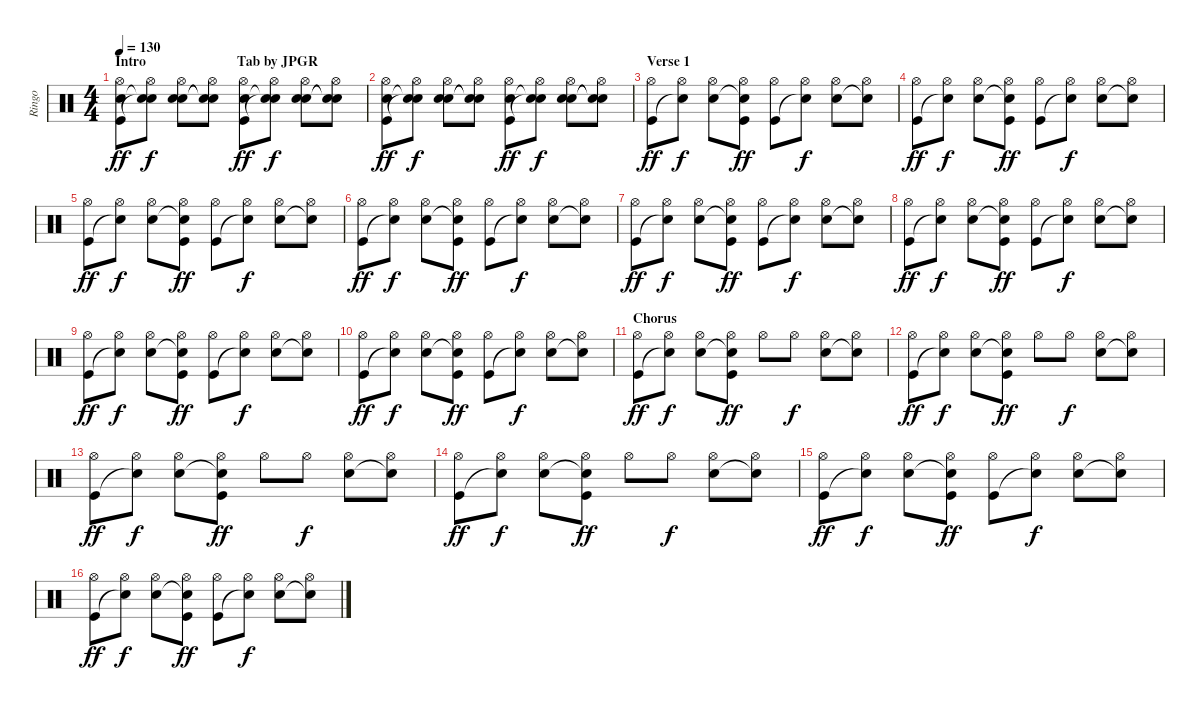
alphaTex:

\track ("Ringo" "Ringo") {instrument percussion}
\staff {score}
\articulation defaults
\ts (4 4)
\section ("" "Intro                          Tab by JPGR")
\tempo 130
\clef neutral
\ks c
("Hi-Hat (open)" "Hand Clap (hit)" "Kick (hit)").8{dy ff} ("Hi-Hat (open)" "Snare (hit)"{t} "Snare (hit)"{t}).8{dy f} ("Hi-Hat (open)" "Hand Clap (hit)" "Snare (hit) 2").8 ("Hi-Hat (open)" "Snare (hit)"{t} "Snare (hit)"{t}).8 ("Hi-Hat (open)" "Hand Clap (hit)" "Kick (hit)").8{dy ff} ("Hi-Hat (open)" "Snare (hit)"{t} "Snare (hit)"{t}).8{dy f} ("Hi-Hat (open)" "Hand Clap (hit)" "Snare (hit) 2").8 ("Hi-Hat (open)" "Snare (hit)"{t} "Snare (hit)"{t}).8 |
("Hi-Hat (open)" "Hand Clap (hit)" "Kick (hit)").8{dy ff} ("Hi-Hat (open)" "Snare (hit)"{t} "Snare (hit)"{t}).8{dy f} ("Hi-Hat (open)" "Hand Clap (hit)" "Snare (hit) 2").8 ("Hi-Hat (open)" "Snare (hit)"{t} "Snare (hit)"{t}).8 ("Hi-Hat (open)" "Hand Clap (hit)" "Kick (hit)").8{dy ff} ("Hi-Hat (open)" "Snare (hit)"{t} "Snare (hit)"{t}).8{dy f} ("Hi-Hat (open)" "Hand Clap (hit)" "Snare (hit) 2").8 ("Hi-Hat (open)" "Snare (hit)"{t} "Snare (hit)"{t}).8 |
\section ("" "Verse 1")
("Hi-Hat (open)" "Kick (hit)").8{dy ff} ("Hi-Hat (open)" "Snare (hit)"{t}).8{dy f} ("Hi-Hat (open)" "Snare (hit) 2").8 ("Hi-Hat (open)" "Snare (hit)"{t} "Kick (hit)").8{dy ff} ("Hi-Hat (open)" "Kick (hit)").8 ("Hi-Hat (open)" "Snare (hit)"{t}).8{dy f} ("Hi-Hat (open)" "Snare (hit) 2").8 ("Hi-Hat (open)" "Snare (hit)"{t}).8 |
("Hi-Hat (open)" "Kick (hit)").8{dy ff} ("Hi-Hat (open)" "Snare (hit)"{t}).8{dy f} ("Hi-Hat (open)" "Snare (hit) 2").8 ("Hi-Hat (open)" "Snare (hit)"{t} "Kick (hit)").8{dy ff} ("Hi-Hat (open)" "Kick (hit)").8 ("Hi-Hat (open)" "Snare (hit)"{t}).8{dy f} ("Hi-Hat (open)" "Snare (hit) 2").8 ("Hi-Hat (open)" "Snare (hit)"{t}).8 |
("Hi-Hat (open)" "Kick (hit)").8{dy ff} ("Hi-Hat (open)" "Snare (hit)"{t}).8{dy f} ("Hi-Hat (open)" "Snare (hit) 2").8 ("Hi-Hat (open)" "Snare (hit)"{t} "Kick (hit)").8{dy ff} ("Hi-Hat (open)" "Kick (hit)").8 ("Hi-Hat (open)" "Snare (hit)"{t}).8{dy f} ("Hi-Hat (open)" "Snare (hit) 2").8 ("Hi-Hat (open)" "Snare (hit)"{t}).8 |
("Hi-Hat (open)" "Kick (hit)").8{dy ff} ("Hi-Hat (open)" "Snare (hit)"{t}).8{dy f} ("Hi-Hat (open)" "Snare (hit) 2").8 ("Hi-Hat (open)" "Snare (hit)"{t} "Kick (hit)").8{dy ff} ("Hi-Hat (open)" "Kick (hit)").8 ("Hi-Hat (open)" "Snare (hit)"{t}).8{dy f} ("Hi-Hat (open)" "Snare (hit) 2").8 ("Hi-Hat (open)" "Snare (hit)"{t}).8 |
("Hi-Hat (open)" "Kick (hit)").8{dy ff} ("Hi-Hat (open)" "Snare (hit)"{t}).8{dy f} ("Hi-Hat (open)" "Snare (hit) 2").8 ("Hi-Hat (open)" "Snare (hit)"{t} "Kick (hit)").8{dy ff} ("Hi-Hat (open)" "Kick (hit)").8 ("Hi-Hat (open)" "Snare (hit)"{t}).8{dy f} ("Hi-Hat (open)" "Snare (hit) 2").8 ("Hi-Hat (open)" "Snare (hit)"{t}).8 |
("Hi-Hat (open)" "Kick (hit)").8{dy ff} ("Hi-Hat (open)" "Snare (hit)"{t}).8{dy f} ("Hi-Hat (open)" "Snare (hit) 2").8 ("Hi-Hat (open)" "Snare (hit)"{t} "Kick (hit)").8{dy ff} ("Hi-Hat (open)" "Kick (hit)").8 ("Hi-Hat (open)" "Snare (hit)"{t}).8{dy f} ("Hi-Hat (open)" "Snare (hit) 2").8 ("Hi-Hat (open)" "Snare (hit)"{t}).8 |
("Hi-Hat (open)" "Kick (hit)").8{dy ff} ("Hi-Hat (open)" "Snare (hit)"{t}).8{dy f} ("Hi-Hat (open)" "Snare (hit) 2").8 ("Hi-Hat (open)" "Snare (hit)"{t} "Kick (hit)").8{dy ff} ("Hi-Hat (open)" "Kick (hit)").8 ("Hi-Hat (open)" "Snare (hit)"{t}).8{dy f} ("Hi-Hat (open)" "Snare (hit) 2").8 ("Hi-Hat (open)" "Snare (hit)"{t}).8 |
("Hi-Hat (open)" "Kick (hit)").8{dy ff} ("Hi-Hat (open)" "Snare (hit)"{t}).8{dy f} ("Hi-Hat (open)" "Snare (hit) 2").8 ("Hi-Hat (open)" "Snare (hit)"{t} "Kick (hit)").8{dy ff} ("Hi-Hat (open)" "Kick (hit)").8 ("Hi-Hat (open)" "Snare (hit)"{t}).8{dy f} ("Hi-Hat (open)" "Snare (hit) 2").8 ("Hi-Hat (open)" "Snare (hit)"{t}).8 |
\section ("" "Chorus")
("Hi-Hat (open)" "Kick (hit)").8{dy ff} ("Hi-Hat (open)" "Snare (hit)"{t}).8{dy f} ("Hi-Hat (open)" "Snare (hit) 2").8 ("Hi-Hat (open)" "Snare (hit)"{t} "Kick (hit)").8{dy ff} "Hi-Hat (open)".8 "Hi-Hat (open)".8{dy f} ("Hi-Hat (open)" "Snare (hit) 2").8 ("Hi-Hat (open)" "Snare (hit)"{t}).8 |
("Hi-Hat (open)" "Kick (hit)").8{dy ff} ("Hi-Hat (open)" "Snare (hit)"{t}).8{dy f} ("Hi-Hat (open)" "Snare (hit) 2").8 ("Hi-Hat (open)" "Snare (hit)"{t} "Kick (hit)").8{dy ff} "Hi-Hat (open)".8 "Hi-Hat (open)".8{dy f} ("Hi-Hat (open)" "Snare (hit) 2").8 ("Hi-Hat (open)" "Snare (hit)"{t}).8 |
("Hi-Hat (open)" "Kick (hit)").8{dy ff} ("Hi-Hat (open)" "Snare (hit)"{t}).8{dy f} ("Hi-Hat (open)" "Snare (hit) 2").8 ("Hi-Hat (open)" "Snare (hit)"{t} "Kick (hit)").8{dy ff} "Hi-Hat (open)".8 "Hi-Hat (open)".8{dy f} ("Hi-Hat (open)" "Snare (hit) 2").8 ("Hi-Hat (open)" "Snare (hit)"{t}).8 |
("Hi-Hat (open)" "Kick (hit)").8{dy ff} ("Hi-Hat (open)" "Snare (hit)"{t}).8{dy f} ("Hi-Hat (open)" "Snare (hit) 2").8 ("Hi-Hat (open)" "Snare (hit)"{t} "Kick (hit)").8{dy ff} "Hi-Hat (open)".8 "Hi-Hat (open)".8{dy f} ("Hi-Hat (open)" "Snare (hit) 2").8 ("Hi-Hat (open)" "Snare (hit)"{t}).8 |
("Hi-Hat (open)" "Kick (hit)").8{dy ff} ("Hi-Hat (open)" "Snare (hit)"{t}).8{dy f} ("Hi-Hat (open)" "Snare (hit) 2").8 ("Hi-Hat (open)" "Snare (hit)"{t} "Kick (hit)").8{dy ff} ("Hi-Hat (open)" "Kick (hit)").8 ("Hi-Hat (open)" "Snare (hit)"{t}).8{dy f} ("Hi-Hat (open)" "Snare (hit) 2").8 ("Hi-Hat (open)" "Snare (hit)"{t}).8 |
("Hi-Hat (open)" "Kick (hit)").8{dy ff} ("Hi-Hat (open)" "Snare (hit)"{t}).8{dy f} ("Hi-Hat (open)" "Snare (hit) 2").8 ("Hi-Hat (open)" "Snare (hit)"{t} "Kick (hit)").8{dy ff} ("Hi-Hat (open)" "Kick (hit)").8 ("Hi-Hat (open)" "Snare (hit)"{t}).8{dy f} ("Hi-Hat (open)" "Snare (hit) 2").8 ("Hi-Hat (open)" "Snare (hit)"{t}).8
